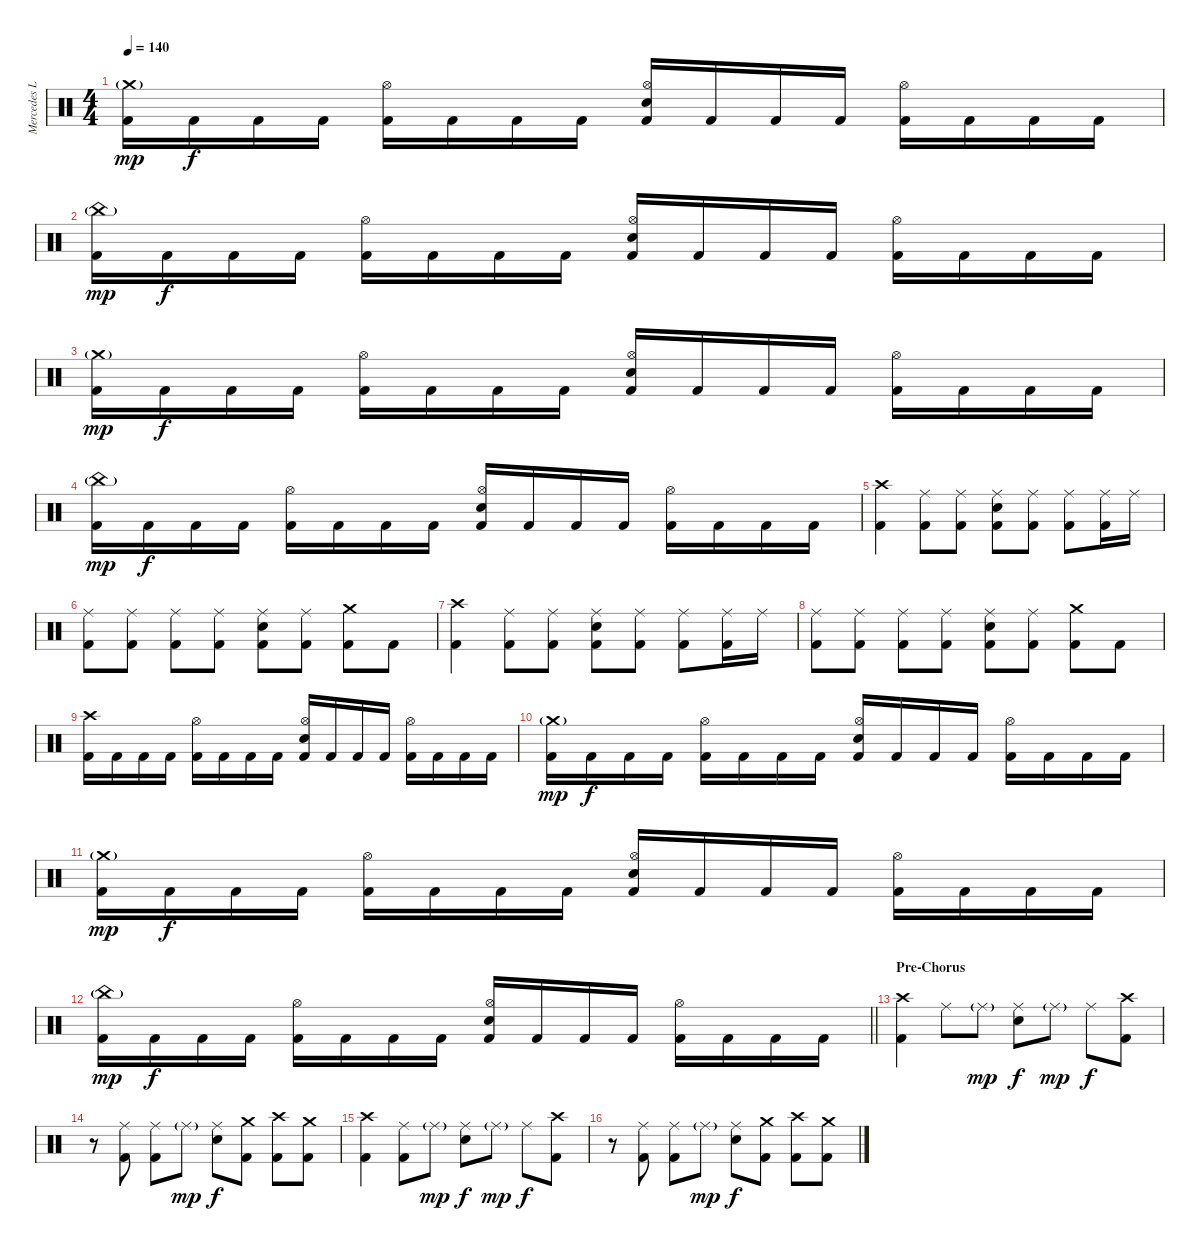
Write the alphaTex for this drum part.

\track ("Mercedes Lander" "Mercedes L") {instrument percussion}
\staff {score}
\articulation defaults
\ts (4 4)
\tempo 140
\clef neutral
\ks c
("Crash medium (hit)"{g} "Kick (hit) 2").16{dy mp} "Kick (hit) 2".16{dy f} "Kick (hit) 2".16 "Kick (hit) 2".16 ("Hi-Hat (open)" "Kick (hit) 2").16 "Kick (hit) 2".16 "Kick (hit) 2".16 "Kick (hit) 2".16 ("Hi-Hat (open)" "Snare (hit) 2" "Kick (hit) 2").16 "Kick (hit) 2".16 "Kick (hit) 2".16 "Kick (hit) 2".16 ("Hi-Hat (open)" "Kick (hit) 2").16 "Kick (hit) 2".16 "Kick (hit) 2".16 "Kick (hit) 2".16 |
("China (hit)"{g} "Kick (hit) 2").16{dy mp} "Kick (hit) 2".16{dy f} "Kick (hit) 2".16 "Kick (hit) 2".16 ("Hi-Hat (open)" "Kick (hit) 2").16 "Kick (hit) 2".16 "Kick (hit) 2".16 "Kick (hit) 2".16 ("Hi-Hat (open)" "Snare (hit) 2" "Kick (hit) 2").16 "Kick (hit) 2".16 "Kick (hit) 2".16 "Kick (hit) 2".16 ("Hi-Hat (open)" "Kick (hit) 2").16 "Kick (hit) 2".16 "Kick (hit) 2".16 "Kick (hit) 2".16 |
("Crash medium (hit)"{g} "Kick (hit) 2").16{dy mp} "Kick (hit) 2".16{dy f} "Kick (hit) 2".16 "Kick (hit) 2".16 ("Hi-Hat (open)" "Kick (hit) 2").16 "Kick (hit) 2".16 "Kick (hit) 2".16 "Kick (hit) 2".16 ("Hi-Hat (open)" "Snare (hit) 2" "Kick (hit) 2").16 "Kick (hit) 2".16 "Kick (hit) 2".16 "Kick (hit) 2".16 ("Hi-Hat (open)" "Kick (hit) 2").16 "Kick (hit) 2".16 "Kick (hit) 2".16 "Kick (hit) 2".16 |
("China (hit)"{g} "Kick (hit) 2").16{dy mp} "Kick (hit) 2".16{dy f} "Kick (hit) 2".16 "Kick (hit) 2".16 ("Hi-Hat (open)" "Kick (hit) 2").16 "Kick (hit) 2".16 "Kick (hit) 2".16 "Kick (hit) 2".16 ("Hi-Hat (open)" "Snare (hit) 2" "Kick (hit) 2").16 "Kick (hit) 2".16 "Kick (hit) 2".16 "Kick (hit) 2".16 ("Hi-Hat (open)" "Kick (hit) 2").16 "Kick (hit) 2".16 "Kick (hit) 2".16 "Kick (hit) 2".16 |
("Crash high (hit)" "Kick (hit) 2").4 ("Ride (middle)" "Kick (hit) 2").8 ("Ride (middle)" "Kick (hit) 2").8 ("Ride (middle)" "Snare (hit) 2" "Kick (hit) 2").8 ("Ride (middle)" "Kick (hit) 2").8 ("Ride (middle)" "Kick (hit) 2").8 ("Ride (middle)" "Kick (hit) 2").16 "Ride (middle)".16 |
("Ride (middle)" "Kick (hit) 2").8 ("Ride (middle)" "Kick (hit) 2").8 ("Ride (middle)" "Kick (hit) 2").8 ("Ride (middle)" "Kick (hit) 2").8 ("Ride (middle)" "Snare (hit) 2" "Kick (hit) 2").8 ("Ride (middle)" "Kick (hit) 2").8 ("Crash medium (hit)" "Kick (hit) 2").8 "Kick (hit) 2".8 |
("Crash high (hit)" "Kick (hit) 2").4 ("Ride (middle)" "Kick (hit) 2").8 ("Ride (middle)" "Kick (hit) 2").8 ("Ride (middle)" "Snare (hit) 2" "Kick (hit) 2").8 ("Ride (middle)" "Kick (hit) 2").8 ("Ride (middle)" "Kick (hit) 2").8 ("Ride (middle)" "Kick (hit) 2").16 "Ride (middle)".16 |
("Ride (middle)" "Kick (hit) 2").8 ("Ride (middle)" "Kick (hit) 2").8 ("Ride (middle)" "Kick (hit) 2").8 ("Ride (middle)" "Kick (hit) 2").8 ("Ride (middle)" "Snare (hit) 2" "Kick (hit) 2").8 ("Ride (middle)" "Kick (hit) 2").8 ("Crash medium (hit)" "Kick (hit) 2").8 "Kick (hit) 2".8 |
("Crash high (hit)" "Kick (hit) 2").16 "Kick (hit) 2".16 "Kick (hit) 2".16 "Kick (hit) 2".16 ("Hi-Hat (open)" "Kick (hit) 2").16 "Kick (hit) 2".16 "Kick (hit) 2".16 "Kick (hit) 2".16 ("Hi-Hat (open)" "Snare (hit) 2" "Kick (hit) 2").16 "Kick (hit) 2".16 "Kick (hit) 2".16 "Kick (hit) 2".16 ("Hi-Hat (open)" "Kick (hit) 2").16 "Kick (hit) 2".16 "Kick (hit) 2".16 "Kick (hit) 2".16 |
("Crash medium (hit)"{g} "Kick (hit) 2").16{dy mp} "Kick (hit) 2".16{dy f} "Kick (hit) 2".16 "Kick (hit) 2".16 ("Hi-Hat (open)" "Kick (hit) 2").16 "Kick (hit) 2".16 "Kick (hit) 2".16 "Kick (hit) 2".16 ("Hi-Hat (open)" "Snare (hit) 2" "Kick (hit) 2").16 "Kick (hit) 2".16 "Kick (hit) 2".16 "Kick (hit) 2".16 ("Hi-Hat (open)" "Kick (hit) 2").16 "Kick (hit) 2".16 "Kick (hit) 2".16 "Kick (hit) 2".16 |
("Crash medium (hit)"{g} "Kick (hit) 2").16{dy mp} "Kick (hit) 2".16{dy f} "Kick (hit) 2".16 "Kick (hit) 2".16 ("Hi-Hat (open)" "Kick (hit) 2").16 "Kick (hit) 2".16 "Kick (hit) 2".16 "Kick (hit) 2".16 ("Hi-Hat (open)" "Snare (hit) 2" "Kick (hit) 2").16 "Kick (hit) 2".16 "Kick (hit) 2".16 "Kick (hit) 2".16 ("Hi-Hat (open)" "Kick (hit) 2").16 "Kick (hit) 2".16 "Kick (hit) 2".16 "Kick (hit) 2".16 |
\barLineRight lightlight
("China (hit)"{g} "Kick (hit) 2").16{dy mp} "Kick (hit) 2".16{dy f} "Kick (hit) 2".16 "Kick (hit) 2".16 ("Hi-Hat (open)" "Kick (hit) 2").16 "Kick (hit) 2".16 "Kick (hit) 2".16 "Kick (hit) 2".16 ("Hi-Hat (open)" "Snare (hit) 2" "Kick (hit) 2").16 "Kick (hit) 2".16 "Kick (hit) 2".16 "Kick (hit) 2".16 ("Hi-Hat (open)" "Kick (hit) 2").16 "Kick (hit) 2".16 "Kick (hit) 2".16 "Kick (hit) 2".16 |
\section ("" "Pre-Chorus")
("Crash high (hit)" "Kick (hit) 2").4 "Ride (middle)".8 "Ride (middle)"{g}.8{dy mp} ("Ride (middle)" "Snare (hit) 2").8{dy f} "Ride (middle)"{g}.8{dy mp} "Ride (middle)".8{dy f} ("Crash high (hit)" "Kick (hit) 2").8 |
r.8 ("Ride (middle)" "Kick (hit) 2").8 ("Ride (middle)" "Kick (hit) 2").8 "Ride (middle)"{g}.8{dy mp} ("Ride (middle)" "Snare (hit) 2").8{dy f} ("Crash medium (hit)" "Kick (hit) 2").8 ("Crash high (hit)" "Kick (hit) 2").8 ("Crash medium (hit)" "Kick (hit) 2").8 |
("Crash high (hit)" "Kick (hit) 2").4 ("Ride (middle)" "Kick (hit) 2").8 "Ride (middle)"{g}.8{dy mp} ("Ride (middle)" "Snare (hit) 2").8{dy f} "Ride (middle)"{g}.8{dy mp} "Ride (middle)".8{dy f} ("Crash high (hit)" "Kick (hit) 2").8 |
r.8 ("Ride (middle)" "Kick (hit) 2").8 ("Ride (middle)" "Kick (hit) 2").8 "Ride (middle)"{g}.8{dy mp} ("Ride (middle)" "Snare (hit) 2").8{dy f} ("Crash medium (hit)" "Kick (hit) 2").8 ("Crash high (hit)" "Kick (hit) 2").8 ("Crash medium (hit)" "Kick (hit) 2").8
